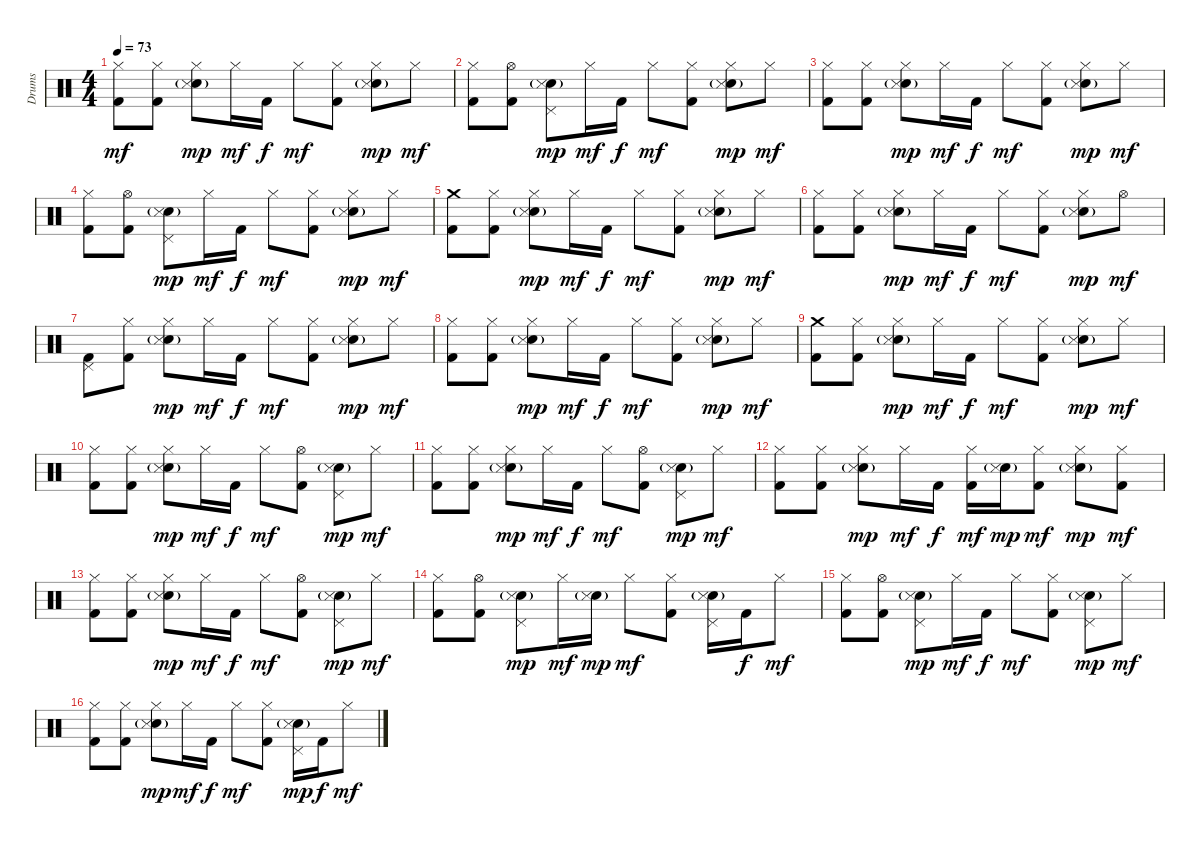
\track ("Drums" "Drums") {instrument percussion}
\staff {score}
\articulation defaults
\ts (4 4)
\tempo 73
\clef neutral
\ks c
("Hi-Hat (closed)" "Kick (hit) 2").8{dy mf} ("Hi-Hat (closed)" "Kick (hit) 2").8 ("Hi-Hat (closed)" "Snare (hit) 2"{g} "Snare (side stick) 3").8{dy mp} "Hi-Hat (closed)".16{dy mf} "Kick (hit) 2".16{dy f} "Hi-Hat (closed)".8{dy mf} ("Hi-Hat (closed)" "Kick (hit) 2").8 ("Hi-Hat (closed)" "Snare (hit) 2"{g} "Snare (side stick) 3").8{dy mp} "Hi-Hat (closed)".8{dy mf} |
("Hi-Hat (closed)" "Kick (hit) 2").8 ("Hi-Hat (open)" "Kick (hit) 2").8 ("Pedal Hi-Hat (hit)" "Snare (hit) 2"{g} "Snare (side stick) 3").8{dy mp} "Hi-Hat (closed)".16{dy mf} "Kick (hit) 2".16{dy f} "Hi-Hat (closed)".8{dy mf} ("Hi-Hat (closed)" "Kick (hit) 2").8 ("Hi-Hat (closed)" "Snare (hit) 2"{g} "Snare (side stick) 3").8{dy mp} "Hi-Hat (closed)".8{dy mf} |
("Hi-Hat (closed)" "Kick (hit) 2").8 ("Hi-Hat (closed)" "Kick (hit) 2").8 ("Hi-Hat (closed)" "Snare (hit) 2"{g} "Snare (side stick) 3").8{dy mp} "Hi-Hat (closed)".16{dy mf} "Kick (hit) 2".16{dy f} "Hi-Hat (closed)".8{dy mf} ("Hi-Hat (closed)" "Kick (hit) 2").8 ("Hi-Hat (closed)" "Snare (hit) 2"{g} "Snare (side stick) 3").8{dy mp} "Hi-Hat (closed)".8{dy mf} |
("Hi-Hat (closed)" "Kick (hit) 2").8 ("Hi-Hat (open)" "Kick (hit) 2").8 ("Pedal Hi-Hat (hit)" "Snare (hit) 2"{g} "Snare (side stick) 3").8{dy mp} "Hi-Hat (closed)".16{dy mf} "Kick (hit) 2".16{dy f} "Hi-Hat (closed)".8{dy mf} ("Hi-Hat (closed)" "Kick (hit) 2").8 ("Hi-Hat (closed)" "Snare (hit) 2"{g} "Snare (side stick) 3").8{dy mp} "Hi-Hat (closed)".8{dy mf} |
("Crash medium (hit)" "Kick (hit) 2").8 ("Hi-Hat (closed)" "Kick (hit) 2").8 ("Hi-Hat (closed)" "Snare (hit) 2"{g} "Snare (side stick) 3").8{dy mp} "Hi-Hat (closed)".16{dy mf} "Kick (hit) 2".16{dy f} "Hi-Hat (closed)".8{dy mf} ("Hi-Hat (closed)" "Kick (hit) 2").8 ("Hi-Hat (closed)" "Snare (hit) 2"{g} "Snare (side stick) 3").8{dy mp} "Hi-Hat (closed)".8{dy mf} |
("Hi-Hat (closed)" "Kick (hit) 2").8 ("Hi-Hat (closed)" "Kick (hit) 2").8 ("Hi-Hat (closed)" "Snare (hit) 2"{g} "Snare (side stick) 3").8{dy mp} "Hi-Hat (closed)".16{dy mf} "Kick (hit) 2".16{dy f} "Hi-Hat (closed)".8{dy mf} ("Hi-Hat (closed)" "Kick (hit) 2").8 ("Hi-Hat (closed)" "Snare (hit) 2"{g} "Snare (side stick) 3").8{dy mp} "Hi-Hat (open)".8{dy mf} |
("Pedal Hi-Hat (hit)" "Kick (hit) 2").8 ("Hi-Hat (closed)" "Kick (hit) 2").8 ("Hi-Hat (closed)" "Snare (hit) 2"{g} "Snare (side stick) 3").8{dy mp} "Hi-Hat (closed)".16{dy mf} "Kick (hit) 2".16{dy f} "Hi-Hat (closed)".8{dy mf} ("Hi-Hat (closed)" "Kick (hit) 2").8 ("Hi-Hat (closed)" "Snare (hit) 2"{g} "Snare (side stick) 3").8{dy mp} "Hi-Hat (closed)".8{dy mf} |
("Hi-Hat (closed)" "Kick (hit) 2").8 ("Hi-Hat (closed)" "Kick (hit) 2").8 ("Hi-Hat (closed)" "Snare (hit) 2"{g} "Snare (side stick) 3").8{dy mp} "Hi-Hat (closed)".16{dy mf} "Kick (hit) 2".16{dy f} "Hi-Hat (closed)".8{dy mf} ("Hi-Hat (closed)" "Kick (hit) 2").8 ("Hi-Hat (closed)" "Snare (hit) 2"{g} "Snare (side stick) 3").8{dy mp} "Hi-Hat (closed)".8{dy mf} |
("Crash medium (hit)" "Kick (hit) 2").8 ("Hi-Hat (closed)" "Kick (hit) 2").8 ("Hi-Hat (closed)" "Snare (hit) 2"{g} "Snare (side stick) 3").8{dy mp} "Hi-Hat (closed)".16{dy mf} "Kick (hit) 2".16{dy f} "Hi-Hat (closed)".8{dy mf} ("Hi-Hat (closed)" "Kick (hit) 2").8 ("Hi-Hat (closed)" "Snare (hit) 2"{g} "Snare (side stick) 3").8{dy mp} "Hi-Hat (closed)".8{dy mf} |
("Hi-Hat (closed)" "Kick (hit) 2").8 ("Hi-Hat (closed)" "Kick (hit) 2").8 ("Hi-Hat (closed)" "Snare (hit) 2"{g} "Snare (side stick) 3").8{dy mp} "Hi-Hat (closed)".16{dy mf} "Kick (hit) 2".16{dy f} "Hi-Hat (closed)".8{dy mf} ("Hi-Hat (open)" "Kick (hit) 2").8 ("Pedal Hi-Hat (hit)" "Snare (hit) 2"{g} "Snare (side stick) 3").8{dy mp} "Hi-Hat (closed)".8{dy mf} |
("Hi-Hat (closed)" "Kick (hit) 2").8 ("Hi-Hat (closed)" "Kick (hit) 2").8 ("Hi-Hat (closed)" "Snare (hit) 2"{g} "Snare (side stick) 3").8{dy mp} "Hi-Hat (closed)".16{dy mf} "Kick (hit) 2".16{dy f} "Hi-Hat (closed)".8{dy mf} ("Hi-Hat (open)" "Kick (hit) 2").8 ("Pedal Hi-Hat (hit)" "Snare (hit) 2"{g} "Snare (side stick) 3").8{dy mp} "Hi-Hat (closed)".8{dy mf} |
("Hi-Hat (closed)" "Kick (hit) 2").8 ("Hi-Hat (closed)" "Kick (hit) 2").8 ("Hi-Hat (closed)" "Snare (hit) 2"{g} "Snare (side stick) 3").8{dy mp} "Hi-Hat (closed)".16{dy mf} "Kick (hit) 2".16{dy f} ("Hi-Hat (closed)" "Kick (hit) 2").16{dy mf} ("Snare (hit) 2"{g} "Snare (side stick) 3").16{dy mp} ("Hi-Hat (closed)" "Kick (hit) 2").8{dy mf} ("Hi-Hat (closed)" "Snare (hit) 2"{g} "Snare (side stick) 3").8{dy mp} ("Hi-Hat (closed)" "Kick (hit) 2").8{dy mf} |
("Hi-Hat (closed)" "Kick (hit) 2").8 ("Hi-Hat (closed)" "Kick (hit) 2").8 ("Hi-Hat (closed)" "Snare (hit) 2"{g} "Snare (side stick) 3").8{dy mp} "Hi-Hat (closed)".16{dy mf} "Kick (hit) 2".16{dy f} "Hi-Hat (closed)".8{dy mf} ("Hi-Hat (open)" "Kick (hit) 2").8 ("Pedal Hi-Hat (hit)" "Snare (hit) 2"{g} "Snare (side stick) 3").8{dy mp} "Hi-Hat (closed)".8{dy mf} |
("Hi-Hat (closed)" "Kick (hit) 2").8 ("Hi-Hat (open)" "Kick (hit) 2").8 ("Pedal Hi-Hat (hit)" "Snare (hit) 2"{g} "Snare (side stick) 3").8{dy mp} "Hi-Hat (closed)".16{dy mf} ("Snare (hit) 2"{g} "Snare (side stick) 3").16{dy mp} "Hi-Hat (closed)".8{dy mf} ("Hi-Hat (closed)" "Kick (hit) 2").8 ("Pedal Hi-Hat (hit)" "Snare (hit) 2"{g} "Snare (side stick) 3").16 "Kick (hit) 2".16{dy f} "Hi-Hat (closed)".8{dy mf} |
("Hi-Hat (closed)" "Kick (hit) 2").8 ("Hi-Hat (open)" "Kick (hit) 2").8 ("Pedal Hi-Hat (hit)" "Snare (hit) 2"{g} "Snare (side stick) 3").8{dy mp} "Hi-Hat (closed)".16{dy mf} "Kick (hit) 2".16{dy f} "Hi-Hat (closed)".8{dy mf} ("Hi-Hat (closed)" "Kick (hit) 2").8 ("Pedal Hi-Hat (hit)" "Snare (hit) 2"{g} "Snare (side stick) 3").8{dy mp} "Hi-Hat (closed)".8{dy mf} |
("Hi-Hat (closed)" "Kick (hit) 2").8 ("Hi-Hat (closed)" "Kick (hit) 2").8 ("Hi-Hat (closed)" "Snare (hit) 2"{g} "Snare (side stick) 3").8{dy mp} "Hi-Hat (closed)".16{dy mf} "Kick (hit) 2".16{dy f} "Hi-Hat (closed)".8{dy mf} ("Hi-Hat (closed)" "Kick (hit) 2").8 ("Pedal Hi-Hat (hit)" "Snare (hit) 2"{g} "Snare (side stick) 3").16{dy mp} "Kick (hit) 2".16{dy f} "Hi-Hat (closed)".8{dy mf}
